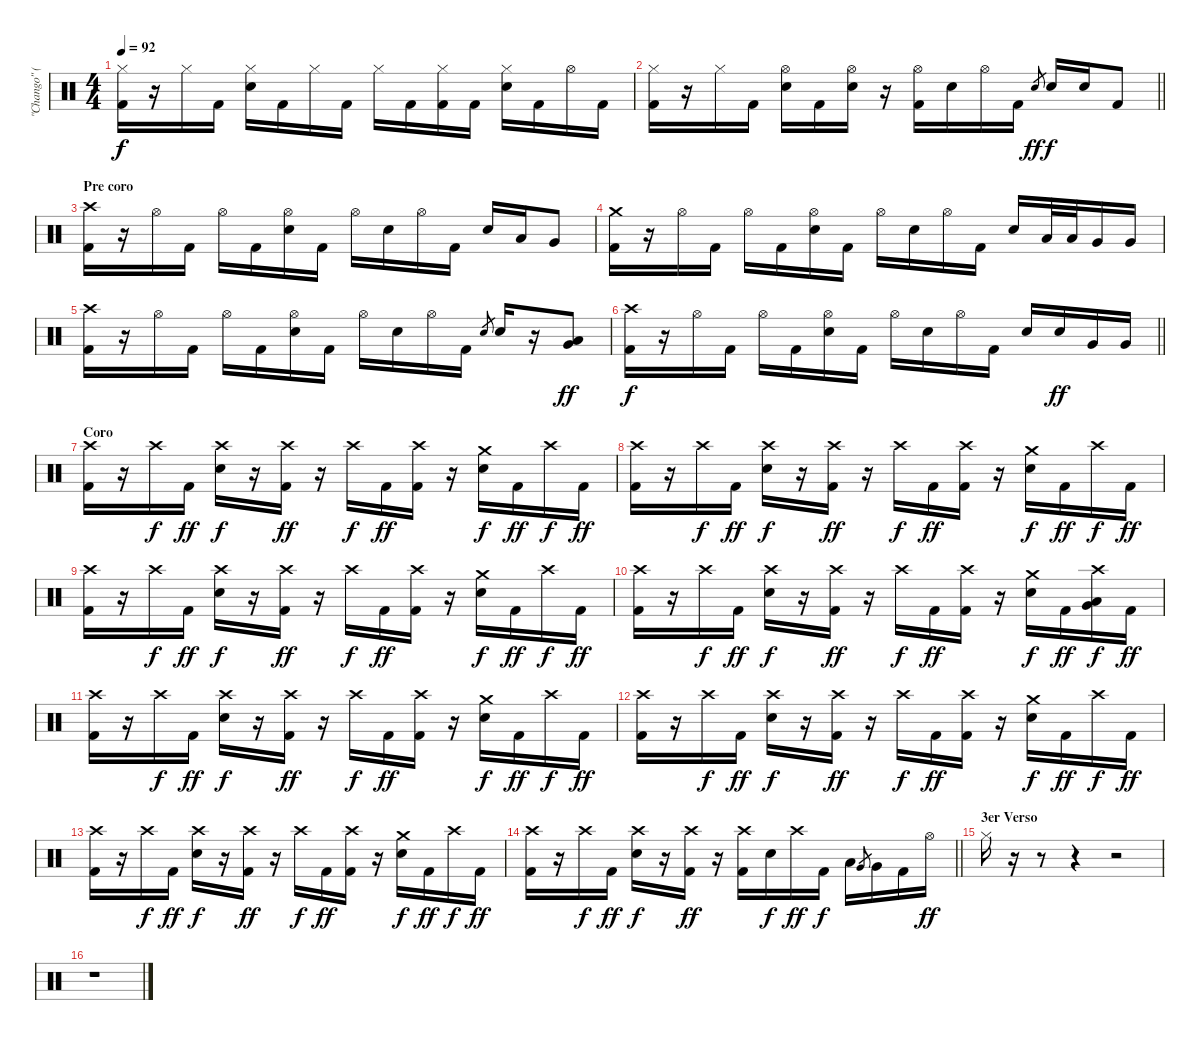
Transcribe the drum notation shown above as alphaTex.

\track ("\"Chango\" (Bateria)" "\"Chango\" (") {instrument percussion}
\staff {score}
\articulation defaults
\ts (4 4)
\tempo 92
\clef neutral
\ks c
("Hi-Hat (closed)" "Kick (hit) 2").16{dy f} r.16 "Hi-Hat (closed)".16 "Kick (hit) 2".16 ("Hi-Hat (closed)" "Electric Snare (hit)").16 "Kick (hit) 2".16 "Hi-Hat (closed)".16 "Kick (hit) 2".16 "Hi-Hat (closed)".16 "Kick (hit) 2".16 ("Hi-Hat (closed)" "Kick (hit) 2").16 "Kick (hit) 2".16 ("Hi-Hat (closed)" "Electric Snare (hit)").16 "Kick (hit) 2".16 "Hi-Hat (open)".16 "Kick (hit) 2".16 |
\barLineRight lightlight
("Hi-Hat (closed)" "Kick (hit) 2").16 r.16 "Hi-Hat (closed)".16 "Kick (hit) 2".16 ("Hi-Hat (open)" "Electric Snare (hit)").16 "Kick (hit) 2".16 ("Hi-Hat (open)" "Electric Snare (hit)").16 r.16 ("Hi-Hat (open)" "Kick (hit) 2").16 "Electric Snare (hit)".16 "Hi-Hat (open)".16 "Kick (hit) 2".16 "Electric Snare (hit)".8{gr dy ff} "Electric Snare (hit)".16{dy f} "Electric Snare (hit)".16 "Kick (hit) 2".8 |
\section ("" "Pre coro")
("Crash high (hit)" "Kick (hit) 2").16 r.16 "Hi-Hat (open)".16 "Kick (hit) 2".16 "Hi-Hat (open)".16 "Kick (hit) 2".16 ("Hi-Hat (open)" "Electric Snare (hit)").16 "Kick (hit) 2".16 "Hi-Hat (open)".16 "Electric Snare (hit)".16 "Hi-Hat (open)".16 "Kick (hit) 2".16 "Electric Snare (hit)".16 "Low Tom (hit)".16 "Very Low Tom (hit)".8 |
("Crash medium (hit)" "Kick (hit) 2").16 r.16 "Hi-Hat (open)".16 "Kick (hit) 2".16 "Hi-Hat (open)".16 "Kick (hit) 2".16 ("Hi-Hat (open)" "Electric Snare (hit)").16 "Kick (hit) 2".16 "Hi-Hat (open)".16 "Electric Snare (hit)".16 "Hi-Hat (open)".16 "Kick (hit) 2".16 "Electric Snare (hit)".16 "Low Tom (hit)".32 "Low Tom (hit)".32 "Very Low Tom (hit)".16 "Very Low Tom (hit)".16 |
("Crash high (hit)" "Kick (hit) 2").16 r.16 "Hi-Hat (open)".16 "Kick (hit) 2".16 "Hi-Hat (open)".16 "Kick (hit) 2".16 ("Hi-Hat (open)" "Electric Snare (hit)").16 "Kick (hit) 2".16 "Hi-Hat (open)".16 "Electric Snare (hit)".16 "Hi-Hat (open)".16 "Kick (hit) 2".16 "Electric Snare (hit)".8{gr} "Electric Snare (hit)".16 r.16 ("Very Low Tom (hit)" "Low Floor Tom (hit)").8{dy ff} |
\barLineRight lightlight
("Crash high (hit)" "Kick (hit) 2").16{dy f} r.16 "Hi-Hat (open)".16 "Kick (hit) 2".16 "Hi-Hat (open)".16 "Kick (hit) 2".16 ("Hi-Hat (open)" "Electric Snare (hit)").16 "Kick (hit) 2".16 "Hi-Hat (open)".16 "Electric Snare (hit)".16 "Hi-Hat (open)".16 "Kick (hit) 2".16 "Electric Snare (hit)".16 "Electric Snare (hit)".16{dy ff} "Very Low Tom (hit)".16 "Very Low Tom (hit)".16 |
\section ("" "Coro")
("Crash high (hit)" "Kick (hit) 2").16 r.16 "Crash high (hit)".16{dy f} "Kick (hit) 2".16{dy ff} ("Crash high (hit)" "Electric Snare (hit)").16{dy f} r.16 ("Crash high (hit)" "Kick (hit) 2").16{dy ff} r.16 "Crash high (hit)".16{dy f} "Kick (hit) 2".16{dy ff} ("Crash high (hit)" "Kick (hit) 2").16 r.16 ("Crash medium (hit)" "Electric Snare (hit)").16{dy f} "Kick (hit) 2".16{dy ff} "Crash high (hit)".16{dy f} "Kick (hit) 2".16{dy ff} |
("Crash high (hit)" "Kick (hit) 2").16 r.16 "Crash high (hit)".16{dy f} "Kick (hit) 2".16{dy ff} ("Crash high (hit)" "Electric Snare (hit)").16{dy f} r.16 ("Crash high (hit)" "Kick (hit) 2").16{dy ff} r.16 "Crash high (hit)".16{dy f} "Kick (hit) 2".16{dy ff} ("Crash high (hit)" "Kick (hit) 2").16 r.16 ("Crash medium (hit)" "Electric Snare (hit)").16{dy f} "Kick (hit) 2".16{dy ff} "Crash high (hit)".16{dy f} "Kick (hit) 2".16{dy ff} |
("Crash high (hit)" "Kick (hit) 2").16 r.16 "Crash high (hit)".16{dy f} "Kick (hit) 2".16{dy ff} ("Crash high (hit)" "Electric Snare (hit)").16{dy f} r.16 ("Crash high (hit)" "Kick (hit) 2").16{dy ff} r.16 "Crash high (hit)".16{dy f} "Kick (hit) 2".16{dy ff} ("Crash high (hit)" "Kick (hit) 2").16 r.16 ("Crash medium (hit)" "Electric Snare (hit)").16{dy f} "Kick (hit) 2".16{dy ff} "Crash high (hit)".16{dy f} "Kick (hit) 2".16{dy ff} |
("Crash high (hit)" "Kick (hit) 2").16 r.16 "Crash high (hit)".16{dy f} "Kick (hit) 2".16{dy ff} ("Crash high (hit)" "Electric Snare (hit)").16{dy f} r.16 ("Crash high (hit)" "Kick (hit) 2").16{dy ff} r.16 "Crash high (hit)".16{dy f} "Kick (hit) 2".16{dy ff} ("Crash high (hit)" "Kick (hit) 2").16 r.16 ("Crash medium (hit)" "Electric Snare (hit)").16{dy f} "Kick (hit) 2".16{dy ff} ("Crash high (hit)" "Very Low Tom (hit)" "Low Floor Tom (hit)").16{dy f} "Kick (hit) 2".16{dy ff} |
("Crash high (hit)" "Kick (hit) 2").16 r.16 "Crash high (hit)".16{dy f} "Kick (hit) 2".16{dy ff} ("Crash high (hit)" "Electric Snare (hit)").16{dy f} r.16 ("Crash high (hit)" "Kick (hit) 2").16{dy ff} r.16 "Crash high (hit)".16{dy f} "Kick (hit) 2".16{dy ff} ("Crash high (hit)" "Kick (hit) 2").16 r.16 ("Crash medium (hit)" "Electric Snare (hit)").16{dy f} "Kick (hit) 2".16{dy ff} "Crash high (hit)".16{dy f} "Kick (hit) 2".16{dy ff} |
("Crash high (hit)" "Kick (hit) 2").16 r.16 "Crash high (hit)".16{dy f} "Kick (hit) 2".16{dy ff} ("Crash high (hit)" "Electric Snare (hit)").16{dy f} r.16 ("Crash high (hit)" "Kick (hit) 2").16{dy ff} r.16 "Crash high (hit)".16{dy f} "Kick (hit) 2".16{dy ff} ("Crash high (hit)" "Kick (hit) 2").16 r.16 ("Crash medium (hit)" "Electric Snare (hit)").16{dy f} "Kick (hit) 2".16{dy ff} "Crash high (hit)".16{dy f} "Kick (hit) 2".16{dy ff} |
("Crash high (hit)" "Kick (hit) 2").16 r.16 "Crash high (hit)".16{dy f} "Kick (hit) 2".16{dy ff} ("Crash high (hit)" "Electric Snare (hit)").16{dy f} r.16 ("Crash high (hit)" "Kick (hit) 2").16{dy ff} r.16 "Crash high (hit)".16{dy f} "Kick (hit) 2".16{dy ff} ("Crash high (hit)" "Kick (hit) 2").16 r.16 ("Crash medium (hit)" "Electric Snare (hit)").16{dy f} "Kick (hit) 2".16{dy ff} "Crash high (hit)".16{dy f} "Kick (hit) 2".16{dy ff} |
\barLineRight lightlight
("Crash high (hit)" "Kick (hit) 2").16 r.16 "Crash high (hit)".16{dy f} "Kick (hit) 2".16{dy ff} ("Crash high (hit)" "Electric Snare (hit)").16{dy f} r.16 ("Crash high (hit)" "Kick (hit) 2").16{dy ff} r.16 ("Crash high (hit)" "Kick (hit) 2").16 "Electric Snare (hit)".16{dy f} "Crash high (hit)".16{dy ff} "Kick (hit) 2".16{dy f} "Low Tom (hit)".16 "Very Low Tom (hit)".8{gr} "Very Low Tom (hit)".16 "Kick (hit) 2".16 "Hi-Hat (open)".16{dy ff} |
\section ("" "3er Verso")
"Hi-Hat (closed)".16 r.16 r.8 r.4 r.2 |
r.1
